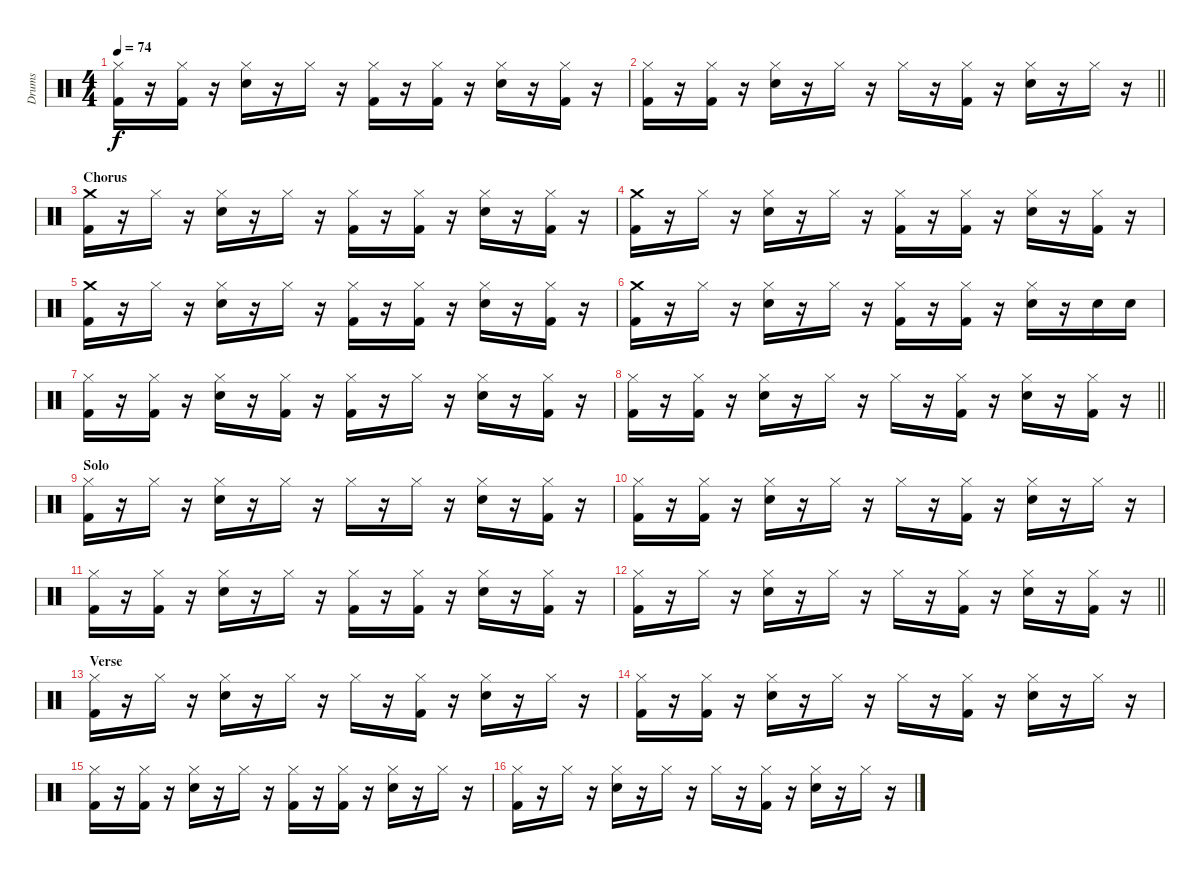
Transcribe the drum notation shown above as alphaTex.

\track ("Drums" "Drums") {instrument percussion}
\staff {score}
\articulation defaults
\ts (4 4)
\tempo 74
\clef neutral
\ks c
("Hi-Hat (closed)" "Kick (hit) 2").16{dy f} r.16 ("Hi-Hat (closed)" "Kick (hit) 2").16 r.16 ("Hi-Hat (closed)" "Snare (hit) 2").16 r.16 "Hi-Hat (closed)".16 r.16 ("Hi-Hat (closed)" "Kick (hit) 2").16 r.16 ("Hi-Hat (closed)" "Kick (hit) 2").16 r.16 ("Hi-Hat (closed)" "Snare (hit) 2").16 r.16 ("Hi-Hat (closed)" "Kick (hit) 2").16 r.16 |
\barLineRight lightlight
("Hi-Hat (closed)" "Kick (hit) 2").16 r.16 ("Hi-Hat (closed)" "Kick (hit) 2").16 r.16 ("Hi-Hat (closed)" "Snare (hit) 2").16 r.16 "Hi-Hat (closed)".16 r.16 "Hi-Hat (closed)".16 r.16 ("Hi-Hat (closed)" "Kick (hit) 2").16 r.16 ("Hi-Hat (closed)" "Snare (hit) 2").16 r.16 "Hi-Hat (closed)".16 r.16 |
\section ("" "Chorus")
("Crash medium (hit)" "Kick (hit) 2").16 r.16 "Hi-Hat (closed)".16 r.16 ("Hi-Hat (closed)" "Snare (hit) 2").16 r.16 "Hi-Hat (closed)".16 r.16 ("Hi-Hat (closed)" "Kick (hit) 2").16 r.16 ("Hi-Hat (closed)" "Kick (hit) 2").16 r.16 ("Hi-Hat (closed)" "Snare (hit) 2").16 r.16 ("Hi-Hat (closed)" "Kick (hit) 2").16 r.16 |
("Crash medium (hit)" "Kick (hit) 2").16 r.16 "Hi-Hat (closed)".16 r.16 ("Hi-Hat (closed)" "Snare (hit) 2").16 r.16 "Hi-Hat (closed)".16 r.16 ("Hi-Hat (closed)" "Kick (hit) 2").16 r.16 ("Hi-Hat (closed)" "Kick (hit) 2").16 r.16 ("Hi-Hat (closed)" "Snare (hit) 2").16 r.16 ("Hi-Hat (closed)" "Kick (hit) 2").16 r.16 |
("Crash medium (hit)" "Kick (hit) 2").16 r.16 "Hi-Hat (closed)".16 r.16 ("Hi-Hat (closed)" "Snare (hit) 2").16 r.16 "Hi-Hat (closed)".16 r.16 ("Hi-Hat (closed)" "Kick (hit) 2").16 r.16 ("Hi-Hat (closed)" "Kick (hit) 2").16 r.16 ("Hi-Hat (closed)" "Snare (hit) 2").16 r.16 ("Hi-Hat (closed)" "Kick (hit) 2").16 r.16 |
("Crash medium (hit)" "Kick (hit) 2").16 r.16 "Hi-Hat (closed)".16 r.16 ("Hi-Hat (closed)" "Snare (hit) 2").16 r.16 "Hi-Hat (closed)".16 r.16 ("Hi-Hat (closed)" "Kick (hit) 2").16 r.16 ("Hi-Hat (closed)" "Kick (hit) 2").16 r.16 ("Hi-Hat (closed)" "Snare (hit) 2").16 r.16 "Snare (hit) 2".16 "Snare (hit) 2".16 |
("Hi-Hat (closed)" "Kick (hit) 2").16 r.16 ("Hi-Hat (closed)" "Kick (hit) 2").16 r.16 ("Hi-Hat (closed)" "Snare (hit) 2").16 r.16 ("Hi-Hat (closed)" "Kick (hit) 2").16 r.16 ("Hi-Hat (closed)" "Kick (hit) 2").16 r.16 "Hi-Hat (closed)".16 r.16 ("Hi-Hat (closed)" "Snare (hit) 2").16 r.16 ("Hi-Hat (closed)" "Kick (hit) 2").16 r.16 |
\barLineRight lightlight
("Hi-Hat (closed)" "Kick (hit) 2").16 r.16 ("Hi-Hat (closed)" "Kick (hit) 2").16 r.16 ("Hi-Hat (closed)" "Snare (hit) 2").16 r.16 "Hi-Hat (closed)".16 r.16 "Hi-Hat (closed)".16 r.16 ("Hi-Hat (closed)" "Kick (hit) 2").16 r.16 ("Hi-Hat (closed)" "Snare (hit) 2").16 r.16 ("Hi-Hat (closed)" "Kick (hit) 2").16 r.16 |
\section ("" "Solo")
("Hi-Hat (closed)" "Kick (hit) 2").16 r.16 "Hi-Hat (closed)".16 r.16 ("Hi-Hat (closed)" "Snare (hit) 2").16 r.16 "Hi-Hat (closed)".16 r.16 "Hi-Hat (closed)".16 r.16 "Hi-Hat (closed)".16 r.16 ("Hi-Hat (closed)" "Snare (hit) 2").16 r.16 ("Hi-Hat (closed)" "Kick (hit) 2").16 r.16 |
("Hi-Hat (closed)" "Kick (hit) 2").16 r.16 ("Hi-Hat (closed)" "Kick (hit) 2").16 r.16 ("Hi-Hat (closed)" "Snare (hit) 2").16 r.16 "Hi-Hat (closed)".16 r.16 "Hi-Hat (closed)".16 r.16 ("Hi-Hat (closed)" "Kick (hit) 2").16 r.16 ("Hi-Hat (closed)" "Snare (hit) 2").16 r.16 "Hi-Hat (closed)".16 r.16 |
("Hi-Hat (closed)" "Kick (hit) 2").16 r.16 ("Hi-Hat (closed)" "Kick (hit) 2").16 r.16 ("Hi-Hat (closed)" "Snare (hit) 2").16 r.16 "Hi-Hat (closed)".16 r.16 ("Hi-Hat (closed)" "Kick (hit) 2").16 r.16 ("Hi-Hat (closed)" "Kick (hit) 2").16 r.16 ("Hi-Hat (closed)" "Snare (hit) 2").16 r.16 ("Hi-Hat (closed)" "Kick (hit) 2").16 r.16 |
\barLineRight lightlight
("Hi-Hat (closed)" "Kick (hit) 2").16 r.16 "Hi-Hat (closed)".16 r.16 ("Hi-Hat (closed)" "Snare (hit) 2").16 r.16 "Hi-Hat (closed)".16 r.16 "Hi-Hat (closed)".16 r.16 ("Hi-Hat (closed)" "Kick (hit) 2").16 r.16 ("Hi-Hat (closed)" "Snare (hit) 2").16 r.16 ("Hi-Hat (closed)" "Kick (hit) 2").16 r.16 |
\section ("" "Verse")
("Hi-Hat (closed)" "Kick (hit) 2").16 r.16 "Hi-Hat (closed)".16 r.16 ("Hi-Hat (closed)" "Snare (hit) 2").16 r.16 "Hi-Hat (closed)".16 r.16 "Hi-Hat (closed)".16 r.16 ("Hi-Hat (closed)" "Kick (hit) 2").16 r.16 ("Hi-Hat (closed)" "Snare (hit) 2").16 r.16 "Hi-Hat (closed)".16 r.16 |
("Hi-Hat (closed)" "Kick (hit) 2").16 r.16 ("Hi-Hat (closed)" "Kick (hit) 2").16 r.16 ("Hi-Hat (closed)" "Snare (hit) 2").16 r.16 "Hi-Hat (closed)".16 r.16 "Hi-Hat (closed)".16 r.16 ("Hi-Hat (closed)" "Kick (hit) 2").16 r.16 ("Hi-Hat (closed)" "Snare (hit) 2").16 r.16 "Hi-Hat (closed)".16 r.16 |
("Hi-Hat (closed)" "Kick (hit) 2").16 r.16 ("Hi-Hat (closed)" "Kick (hit) 2").16 r.16 ("Hi-Hat (closed)" "Snare (hit) 2").16 r.16 "Hi-Hat (closed)".16 r.16 ("Hi-Hat (closed)" "Kick (hit) 2").16 r.16 ("Hi-Hat (closed)" "Kick (hit) 2").16 r.16 ("Hi-Hat (closed)" "Snare (hit) 2").16 r.16 "Hi-Hat (closed)".16 r.16 |
("Hi-Hat (closed)" "Kick (hit) 2").16 r.16 "Hi-Hat (closed)".16 r.16 ("Hi-Hat (closed)" "Snare (hit) 2").16 r.16 "Hi-Hat (closed)".16 r.16 "Hi-Hat (closed)".16 r.16 ("Hi-Hat (closed)" "Kick (hit) 2").16 r.16 ("Hi-Hat (closed)" "Snare (hit) 2").16 r.16 "Hi-Hat (closed)".16 r.16
